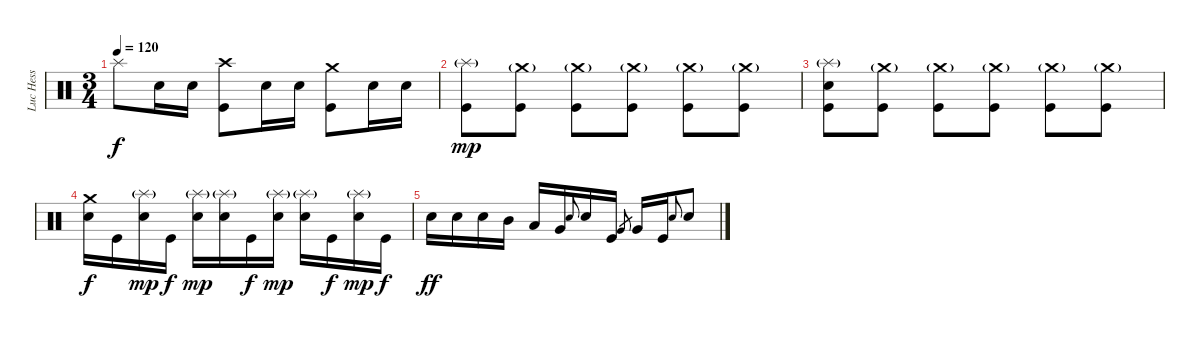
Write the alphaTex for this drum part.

\track ("Luc Hess" "Luc Hess") {instrument percussion}
\staff {score}
\articulation defaults
\ts (3 4)
\tempo 120
\clef neutral
\ks c "Splash (hit)".8{dy f} "Snare (hit) 2".16 "Snare (hit) 2".16
("Crash high (hit)" "Kick (hit)").8 "Snare (hit) 2".16 "Snare (hit) 2".16 ("Crash medium (hit)" "Kick (hit)").8 "Snare (hit) 2".16 "Snare (hit) 2".16 |
("Splash (hit)"{g} "Kick (hit)").8{dy mp} ("Crash medium (hit)"{g} "Kick (hit)").8 ("Crash medium (hit)"{g} "Kick (hit)").8 ("Crash medium (hit)"{g} "Kick (hit)").8 ("Crash medium (hit)"{g} "Kick (hit)").8 ("Crash medium (hit)"{g} "Kick (hit)").8 |
("Snare (hit) 2" "Splash (hit)"{g} "Kick (hit)").8 ("Crash medium (hit)"{g} "Kick (hit)").8 ("Crash medium (hit)"{g} "Kick (hit)").8 ("Crash medium (hit)"{g} "Kick (hit)").8 ("Crash medium (hit)"{g} "Kick (hit)").8 ("Crash medium (hit)"{g} "Kick (hit)").8 |
("Snare (hit) 2" "Crash medium (hit)").16{dy f} "Kick (hit)".16 ("Snare (hit) 2" "Splash (hit)"{g}).16{dy mp} "Kick (hit)".16{dy f} ("Snare (hit) 2" "Splash (hit)"{g}).16{dy mp} ("Snare (hit) 2" "Splash (hit)"{g}).16 "Kick (hit)".16{dy f} ("Snare (hit) 2" "Splash (hit)"{g}).16{dy mp} ("Snare (hit) 2" "Splash (hit)"{g}).16 "Kick (hit)".16{dy f} ("Snare (hit) 2" "Splash (hit)"{g}).16{dy mp} "Kick (hit)".16{dy f} |
"Snare (hit) 2".16{dy ff} "Snare (hit) 2".16 "Snare (hit) 2".16 "Mid Tom (hit)".16 "Low Tom (hit)".16 "Very Low Tom (hit)".16 "Snare (hit) 2".8{gr onbeat} "Snare (hit) 2".16 "Kick (hit)".16 "Very Low Tom (hit)".8{gr} "Very Low Tom (hit)".16 "Kick (hit)".16 "Snare (hit) 2".8{gr onbeat} "Snare (hit) 2".8
